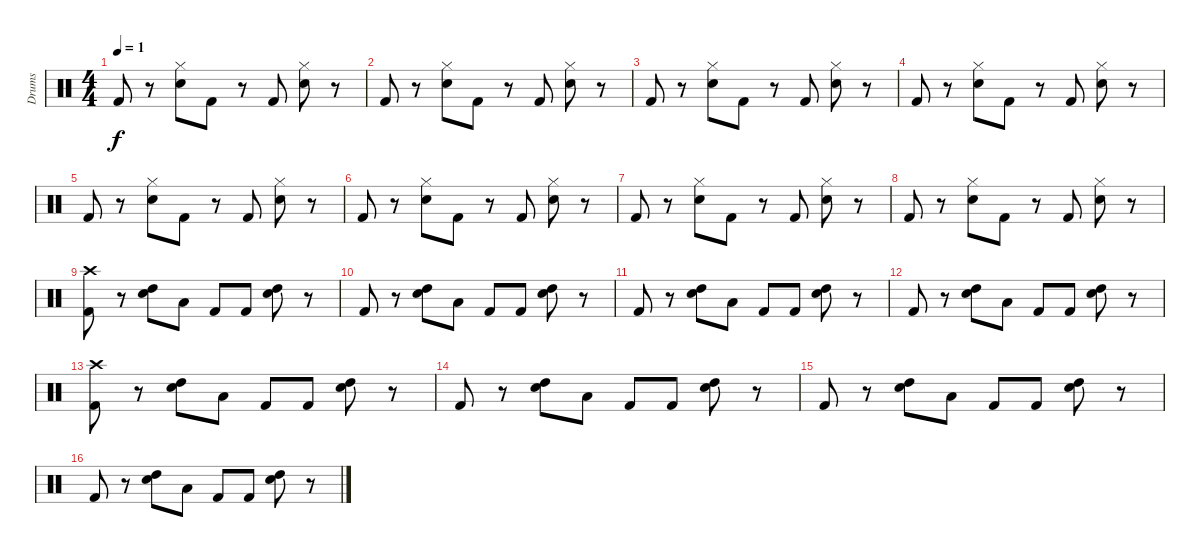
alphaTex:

\track ("Drums" "Drums") {instrument percussion}
\staff {score}
\articulation defaults
\ts (4 4)
\tempo 1
\clef neutral
\ks c "Kick (hit) 2".8{dy f}
r.8 ("Hi-Hat (closed)" "Snare (hit) 2").8 "Kick (hit) 2".8 r.8 "Kick (hit) 2".8 ("Hi-Hat (closed)" "Snare (hit) 2").8 r.8 |
"Kick (hit) 2".8 r.8 ("Hi-Hat (closed)" "Snare (hit) 2").8 "Kick (hit) 2".8 r.8 "Kick (hit) 2".8 ("Hi-Hat (closed)" "Snare (hit) 2").8 r.8 |
"Kick (hit) 2".8 r.8 ("Hi-Hat (closed)" "Snare (hit) 2").8 "Kick (hit) 2".8 r.8 "Kick (hit) 2".8 ("Hi-Hat (closed)" "Snare (hit) 2").8 r.8 |
"Kick (hit) 2".8 r.8 ("Hi-Hat (closed)" "Snare (hit) 2").8 "Kick (hit) 2".8 r.8 "Kick (hit) 2".8 ("Hi-Hat (closed)" "Snare (hit) 2").8 r.8 |
"Kick (hit) 2".8 r.8 ("Hi-Hat (closed)" "Snare (hit) 2").8 "Kick (hit) 2".8 r.8 "Kick (hit) 2".8 ("Hi-Hat (closed)" "Snare (hit) 2").8 r.8 |
"Kick (hit) 2".8 r.8 ("Hi-Hat (closed)" "Snare (hit) 2").8 "Kick (hit) 2".8 r.8 "Kick (hit) 2".8 ("Hi-Hat (closed)" "Snare (hit) 2").8 r.8 |
"Kick (hit) 2".8 r.8 ("Hi-Hat (closed)" "Snare (hit) 2").8 "Kick (hit) 2".8 r.8 "Kick (hit) 2".8 ("Hi-Hat (closed)" "Snare (hit) 2").8 r.8 |
"Kick (hit) 2".8 r.8 ("Hi-Hat (closed)" "Snare (hit) 2").8 "Kick (hit) 2".8 r.8 "Kick (hit) 2".8 ("Hi-Hat (closed)" "Snare (hit) 2").8 r.8 |
("Crash high (hit)" "Kick (hit) 2").8 r.8 ("Snare (hit) 2" "High Tom (hit)").8 "Low Tom (hit)".8 "Kick (hit) 2".8 "Kick (hit) 2".8 ("Snare (hit) 2" "High Tom (hit)").8 r.8 |
"Kick (hit) 2".8 r.8 ("Snare (hit) 2" "High Tom (hit)").8 "Low Tom (hit)".8 "Kick (hit) 2".8 "Kick (hit) 2".8 ("Snare (hit) 2" "High Tom (hit)").8 r.8 |
"Kick (hit) 2".8 r.8 ("Snare (hit) 2" "High Tom (hit)").8 "Low Tom (hit)".8 "Kick (hit) 2".8 "Kick (hit) 2".8 ("Snare (hit) 2" "High Tom (hit)").8 r.8 |
"Kick (hit) 2".8 r.8 ("Snare (hit) 2" "High Tom (hit)").8 "Low Tom (hit)".8 "Kick (hit) 2".8 "Kick (hit) 2".8 ("Snare (hit) 2" "High Tom (hit)").8 r.8 |
("Crash high (hit)" "Kick (hit) 2").8 r.8 ("Snare (hit) 2" "High Tom (hit)").8 "Low Tom (hit)".8 "Kick (hit) 2".8 "Kick (hit) 2".8 ("Snare (hit) 2" "High Tom (hit)").8 r.8 |
"Kick (hit) 2".8 r.8 ("Snare (hit) 2" "High Tom (hit)").8 "Low Tom (hit)".8 "Kick (hit) 2".8 "Kick (hit) 2".8 ("Snare (hit) 2" "High Tom (hit)").8 r.8 |
"Kick (hit) 2".8 r.8 ("Snare (hit) 2" "High Tom (hit)").8 "Low Tom (hit)".8 "Kick (hit) 2".8 "Kick (hit) 2".8 ("Snare (hit) 2" "High Tom (hit)").8 r.8 |
"Kick (hit) 2".8 r.8 ("Snare (hit) 2" "High Tom (hit)").8 "Low Tom (hit)".8 "Kick (hit) 2".8 "Kick (hit) 2".8 ("Snare (hit) 2" "High Tom (hit)").8 r.8
